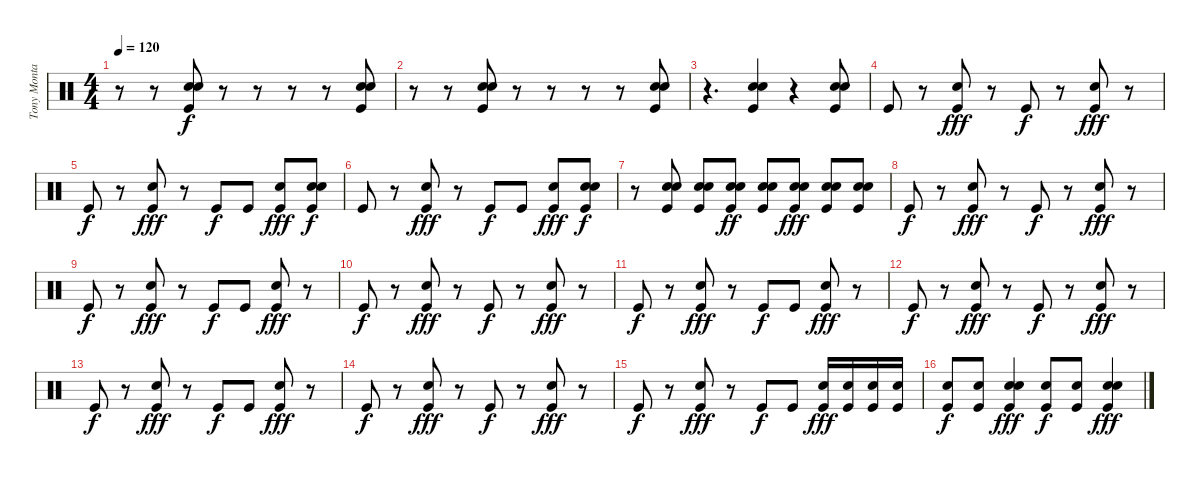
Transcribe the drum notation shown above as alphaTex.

\track ("Tony Montana" "Tony Monta") {instrument percussion}
\staff {score}
\articulation defaults
\ts (4 4)
\tempo 120
\clef neutral
\ks c
r.8{dy f} r.8 ("Kick (hit)" "Snare (hit) 2" "Snare (hit) 2").8 r.8 r.8 r.8 r.8 ("Kick (hit)" "Snare (hit) 2" "Snare (hit) 2").8 |
r.8 r.8 ("Kick (hit)" "Snare (hit) 2" "Snare (hit) 2").8 r.8 r.8 r.8 r.8 ("Kick (hit)" "Snare (hit) 2" "Snare (hit) 2").8 |
r.4{d} ("Kick (hit)" "Snare (hit) 2" "Snare (hit) 2").4 r.4 ("Kick (hit)" "Snare (hit) 2" "Snare (hit) 2").8 |
"Kick (hit)".8 r.8 ("Kick (hit)" "Snare (hit) 2").8{dy fff} r.8 "Kick (hit)".8{dy f} r.8 ("Kick (hit)" "Snare (hit) 2").8{dy fff} r.8 |
"Kick (hit)".8{dy f} r.8 ("Kick (hit)" "Snare (hit) 2").8{dy fff} r.8 "Kick (hit)".8{dy f} "Kick (hit)".8 ("Kick (hit)" "Snare (hit) 2").8{dy fff} ("Kick (hit)" "Snare (hit) 2" "Snare (hit) 2").8{dy f} |
"Kick (hit)".8 r.8 ("Kick (hit)" "Snare (hit) 2").8{dy fff} r.8 "Kick (hit)".8{dy f} "Kick (hit)".8 ("Kick (hit)" "Snare (hit) 2").8{dy fff} ("Kick (hit)" "Snare (hit) 2" "Snare (hit) 2").8{dy f} |
r.8 ("Kick (hit)" "Snare (hit) 2" "Snare (hit) 2").8 ("Kick (hit)" "Snare (hit) 2" "Snare (hit) 2").8 ("Kick (hit)" "Snare (hit) 2" "Snare (hit) 2").8{dy ff} ("Kick (hit)" "Snare (hit) 2" "Snare (hit) 2").8 ("Kick (hit)" "Snare (hit) 2" "Snare (hit) 2").8{dy fff} ("Kick (hit)" "Snare (hit) 2" "Snare (hit) 2").8 ("Kick (hit)" "Snare (hit) 2" "Snare (hit) 2").8 |
"Kick (hit)".8{dy f} r.8 ("Kick (hit)" "Snare (hit) 2").8{dy fff} r.8 "Kick (hit)".8{dy f} r.8 ("Kick (hit)" "Snare (hit) 2").8{dy fff} r.8 |
"Kick (hit)".8{dy f} r.8 ("Kick (hit)" "Snare (hit) 2").8{dy fff} r.8 "Kick (hit)".8{dy f} "Kick (hit)".8 ("Kick (hit)" "Snare (hit) 2").8{dy fff} r.8 |
"Kick (hit)".8{dy f} r.8 ("Kick (hit)" "Snare (hit) 2").8{dy fff} r.8 "Kick (hit)".8{dy f} r.8 ("Kick (hit)" "Snare (hit) 2").8{dy fff} r.8 |
"Kick (hit)".8{dy f} r.8 ("Kick (hit)" "Snare (hit) 2").8{dy fff} r.8 "Kick (hit)".8{dy f} "Kick (hit)".8 ("Kick (hit)" "Snare (hit) 2").8{dy fff} r.8 |
"Kick (hit)".8{dy f} r.8 ("Kick (hit)" "Snare (hit) 2").8{dy fff} r.8 "Kick (hit)".8{dy f} r.8 ("Kick (hit)" "Snare (hit) 2").8{dy fff} r.8 |
"Kick (hit)".8{dy f} r.8 ("Kick (hit)" "Snare (hit) 2").8{dy fff} r.8 "Kick (hit)".8{dy f} "Kick (hit)".8 ("Kick (hit)" "Snare (hit) 2").8{dy fff} r.8 |
"Kick (hit)".8{dy f} r.8 ("Kick (hit)" "Snare (hit) 2").8{dy fff} r.8 "Kick (hit)".8{dy f} r.8 ("Kick (hit)" "Snare (hit) 2").8{dy fff} r.8 |
"Kick (hit)".8{dy f} r.8 ("Kick (hit)" "Snare (hit) 2").8{dy fff} r.8 "Kick (hit)".8{dy f} "Kick (hit)".8 ("Kick (hit)" "Snare (hit) 2").16{dy fff} ("Kick (hit)" "Snare (hit) 2").16 ("Kick (hit)" "Snare (hit) 2").16 ("Kick (hit)" "Snare (hit) 2").16 |
("Kick (hit)" "Snare (hit) 2").8{dy f} ("Kick (hit)" "Snare (hit) 2").8 ("Kick (hit)" "Snare (hit) 2" "Snare (hit) 2").4{dy fff} ("Kick (hit)" "Snare (hit) 2").8{dy f} ("Kick (hit)" "Snare (hit) 2").8 ("Kick (hit)" "Snare (hit) 2" "Snare (hit) 2").4{dy fff}
